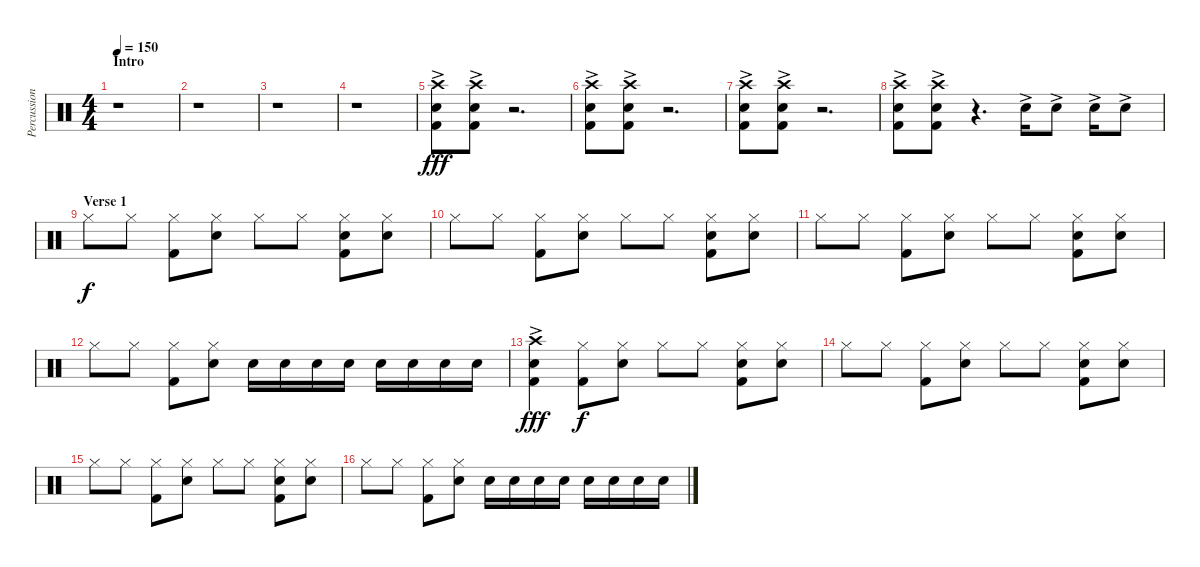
\track ("Percussion" "Percussion") {instrument percussion}
\staff {score}
\articulation defaults
\ts (4 4)
\section ("" "Intro")
\tempo 150
\clef neutral
\ks c
r.1{dy fff} |
r.1 |
r.1 |
r.1 |
("Crash high (hit)"{ac} "Kick (hit) 2"{ac} "Electric Snare (hit)"{ac}).8 ("Crash high (hit)"{ac} "Kick (hit) 2"{ac} "Electric Snare (hit)"{ac}).8 r.2{d} |
("Crash high (hit)"{ac} "Kick (hit) 2"{ac} "Electric Snare (hit)"{ac}).8 ("Crash high (hit)"{ac} "Kick (hit) 2"{ac} "Electric Snare (hit)"{ac}).8 r.2{d} |
("Crash high (hit)"{ac} "Kick (hit) 2"{ac} "Electric Snare (hit)"{ac}).8 ("Crash high (hit)"{ac} "Kick (hit) 2"{ac} "Electric Snare (hit)"{ac}).8 r.2{d} |
("Crash high (hit)"{ac} "Kick (hit) 2"{ac} "Electric Snare (hit)"{ac}).8 ("Crash high (hit)"{ac} "Kick (hit) 2"{ac} "Electric Snare (hit)"{ac}).8 r.4{d} "Electric Snare (hit)"{ac}.16 "Electric Snare (hit)"{ac}.8 "Electric Snare (hit)"{ac}.16 "Electric Snare (hit)"{ac}.8 |
\section ("" "Verse 1")
"Hi-Hat (closed)".8{dy f} "Hi-Hat (closed)".8 ("Hi-Hat (closed)" "Kick (hit) 2").8 ("Hi-Hat (closed)" "Electric Snare (hit)").8 "Hi-Hat (closed)".8 "Hi-Hat (closed)".8 ("Hi-Hat (closed)" "Electric Snare (hit)" "Kick (hit) 2").8 ("Hi-Hat (closed)" "Electric Snare (hit)").8 |
"Hi-Hat (closed)".8 "Hi-Hat (closed)".8 ("Hi-Hat (closed)" "Kick (hit) 2").8 ("Hi-Hat (closed)" "Electric Snare (hit)").8 "Hi-Hat (closed)".8 "Hi-Hat (closed)".8 ("Hi-Hat (closed)" "Electric Snare (hit)" "Kick (hit) 2").8 ("Hi-Hat (closed)" "Electric Snare (hit)").8 |
"Hi-Hat (closed)".8 "Hi-Hat (closed)".8 ("Hi-Hat (closed)" "Kick (hit) 2").8 ("Hi-Hat (closed)" "Electric Snare (hit)").8 "Hi-Hat (closed)".8 "Hi-Hat (closed)".8 ("Hi-Hat (closed)" "Electric Snare (hit)" "Kick (hit) 2").8 ("Hi-Hat (closed)" "Electric Snare (hit)").8 |
"Hi-Hat (closed)".8 "Hi-Hat (closed)".8 ("Hi-Hat (closed)" "Kick (hit) 2").8 ("Hi-Hat (closed)" "Electric Snare (hit)").8 "Electric Snare (hit)".16 "Electric Snare (hit)".16 "Electric Snare (hit)".16 "Electric Snare (hit)".16 "Electric Snare (hit)".16 "Electric Snare (hit)".16 "Electric Snare (hit)".16 "Electric Snare (hit)".16 |
("Crash high (hit)"{ac} "Kick (hit) 2"{ac} "Electric Snare (hit)"{ac}).4{dy fff} ("Hi-Hat (closed)" "Kick (hit) 2").8{dy f} ("Hi-Hat (closed)" "Electric Snare (hit)").8 "Hi-Hat (closed)".8 "Hi-Hat (closed)".8 ("Hi-Hat (closed)" "Electric Snare (hit)" "Kick (hit) 2").8 ("Hi-Hat (closed)" "Electric Snare (hit)").8 |
"Hi-Hat (closed)".8 "Hi-Hat (closed)".8 ("Hi-Hat (closed)" "Kick (hit) 2").8 ("Hi-Hat (closed)" "Electric Snare (hit)").8 "Hi-Hat (closed)".8 "Hi-Hat (closed)".8 ("Hi-Hat (closed)" "Electric Snare (hit)" "Kick (hit) 2").8 ("Hi-Hat (closed)" "Electric Snare (hit)").8 |
"Hi-Hat (closed)".8 "Hi-Hat (closed)".8 ("Hi-Hat (closed)" "Kick (hit) 2").8 ("Hi-Hat (closed)" "Electric Snare (hit)").8 "Hi-Hat (closed)".8 "Hi-Hat (closed)".8 ("Hi-Hat (closed)" "Electric Snare (hit)" "Kick (hit) 2").8 ("Hi-Hat (closed)" "Electric Snare (hit)").8 |
"Hi-Hat (closed)".8 "Hi-Hat (closed)".8 ("Hi-Hat (closed)" "Kick (hit) 2").8 ("Hi-Hat (closed)" "Electric Snare (hit)").8 "Electric Snare (hit)".16 "Electric Snare (hit)".16 "Electric Snare (hit)".16 "Electric Snare (hit)".16 "Electric Snare (hit)".16 "Electric Snare (hit)".16 "Electric Snare (hit)".16 "Electric Snare (hit)".16
